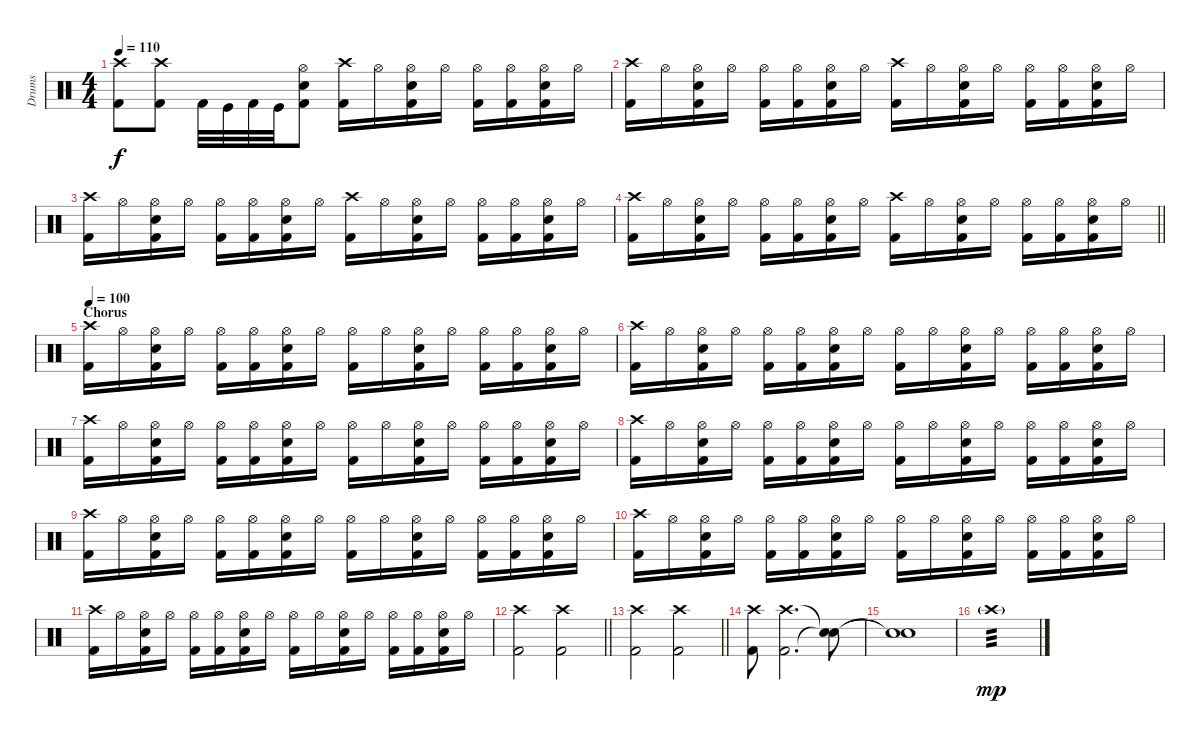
\track ("Drums" "Drums") {instrument percussion}
\staff {score}
\articulation defaults
\ts (4 4)
\tempo 110
\clef neutral
\ks c
("Kick (hit) 2" "Crash high (hit)").8{dy f} ("Kick (hit) 2" "Crash high (hit)").8 "Kick (hit) 2".32 "Kick (hit)".32 "Kick (hit) 2".32 "Kick (hit)".32 ("Kick (hit) 2" "Snare (hit) 2" "Hi-Hat (open)").8 ("Kick (hit) 2" "Crash high (hit)").16 "Hi-Hat (open)".16 ("Kick (hit) 2" "Snare (hit) 2" "Hi-Hat (open)").16 "Hi-Hat (open)".16 ("Kick (hit) 2" "Hi-Hat (open)").16 ("Kick (hit) 2" "Hi-Hat (open)").16 ("Kick (hit) 2" "Snare (hit) 2" "Hi-Hat (open)").16 "Hi-Hat (open)".16 |
("Kick (hit) 2" "Crash high (hit)").16 "Hi-Hat (open)".16 ("Kick (hit) 2" "Snare (hit) 2" "Hi-Hat (open)").16 "Hi-Hat (open)".16 ("Kick (hit) 2" "Hi-Hat (open)").16 ("Kick (hit) 2" "Hi-Hat (open)").16 ("Kick (hit) 2" "Snare (hit) 2" "Hi-Hat (open)").16 "Hi-Hat (open)".16 ("Kick (hit) 2" "Crash high (hit)").16 "Hi-Hat (open)".16 ("Kick (hit) 2" "Snare (hit) 2" "Hi-Hat (open)").16 "Hi-Hat (open)".16 ("Kick (hit) 2" "Hi-Hat (open)").16 ("Kick (hit) 2" "Hi-Hat (open)").16 ("Kick (hit) 2" "Snare (hit) 2" "Hi-Hat (open)").16 "Hi-Hat (open)".16 |
("Kick (hit) 2" "Crash high (hit)").16 "Hi-Hat (open)".16 ("Kick (hit) 2" "Snare (hit) 2" "Hi-Hat (open)").16 "Hi-Hat (open)".16 ("Kick (hit) 2" "Hi-Hat (open)").16 ("Kick (hit) 2" "Hi-Hat (open)").16 ("Kick (hit) 2" "Snare (hit) 2" "Hi-Hat (open)").16 "Hi-Hat (open)".16 ("Kick (hit) 2" "Crash high (hit)").16 "Hi-Hat (open)".16 ("Kick (hit) 2" "Snare (hit) 2" "Hi-Hat (open)").16 "Hi-Hat (open)".16 ("Kick (hit) 2" "Hi-Hat (open)").16 ("Kick (hit) 2" "Hi-Hat (open)").16 ("Kick (hit) 2" "Snare (hit) 2" "Hi-Hat (open)").16 "Hi-Hat (open)".16 |
\barLineRight lightlight
("Kick (hit) 2" "Crash high (hit)").16 "Hi-Hat (open)".16 ("Kick (hit) 2" "Snare (hit) 2" "Hi-Hat (open)").16 "Hi-Hat (open)".16 ("Kick (hit) 2" "Hi-Hat (open)").16 ("Kick (hit) 2" "Hi-Hat (open)").16 ("Kick (hit) 2" "Snare (hit) 2" "Hi-Hat (open)").16 "Hi-Hat (open)".16 ("Kick (hit) 2" "Crash high (hit)").16 "Hi-Hat (open)".16 ("Kick (hit) 2" "Snare (hit) 2" "Hi-Hat (open)").16 "Hi-Hat (open)".16 ("Kick (hit) 2" "Hi-Hat (open)").16 ("Kick (hit) 2" "Hi-Hat (open)").16 ("Kick (hit) 2" "Snare (hit) 2" "Hi-Hat (open)").16 "Hi-Hat (open)".16 |
\section ("" "Chorus")
\tempo 100
("Kick (hit) 2" "Crash high (hit)").16 "Hi-Hat (open)".16 ("Kick (hit) 2" "Snare (hit) 2" "Hi-Hat (open)").16 "Hi-Hat (open)".16 ("Kick (hit) 2" "Hi-Hat (open)").16 ("Kick (hit) 2" "Hi-Hat (open)").16 ("Kick (hit) 2" "Snare (hit) 2" "Hi-Hat (open)").16 "Hi-Hat (open)".16 ("Kick (hit) 2" "Hi-Hat (open)").16 "Hi-Hat (open)".16 ("Kick (hit) 2" "Snare (hit) 2" "Hi-Hat (open)").16 "Hi-Hat (open)".16 ("Kick (hit) 2" "Hi-Hat (open)").16 ("Kick (hit) 2" "Hi-Hat (open)").16 ("Kick (hit) 2" "Snare (hit) 2" "Hi-Hat (open)").16 "Hi-Hat (open)".16 |
("Kick (hit) 2" "Crash high (hit)").16 "Hi-Hat (open)".16 ("Kick (hit) 2" "Snare (hit) 2" "Hi-Hat (open)").16 "Hi-Hat (open)".16 ("Kick (hit) 2" "Hi-Hat (open)").16 ("Kick (hit) 2" "Hi-Hat (open)").16 ("Kick (hit) 2" "Snare (hit) 2" "Hi-Hat (open)").16 "Hi-Hat (open)".16 ("Kick (hit) 2" "Hi-Hat (open)").16 "Hi-Hat (open)".16 ("Kick (hit) 2" "Snare (hit) 2" "Hi-Hat (open)").16 "Hi-Hat (open)".16 ("Kick (hit) 2" "Hi-Hat (open)").16 ("Kick (hit) 2" "Hi-Hat (open)").16 ("Kick (hit) 2" "Snare (hit) 2" "Hi-Hat (open)").16 "Hi-Hat (open)".16 |
("Kick (hit) 2" "Crash high (hit)").16 "Hi-Hat (open)".16 ("Kick (hit) 2" "Snare (hit) 2" "Hi-Hat (open)").16 "Hi-Hat (open)".16 ("Kick (hit) 2" "Hi-Hat (open)").16 ("Kick (hit) 2" "Hi-Hat (open)").16 ("Kick (hit) 2" "Snare (hit) 2" "Hi-Hat (open)").16 "Hi-Hat (open)".16 ("Kick (hit) 2" "Hi-Hat (open)").16 "Hi-Hat (open)".16 ("Kick (hit) 2" "Snare (hit) 2" "Hi-Hat (open)").16 "Hi-Hat (open)".16 ("Kick (hit) 2" "Hi-Hat (open)").16 ("Kick (hit) 2" "Hi-Hat (open)").16 ("Kick (hit) 2" "Snare (hit) 2" "Hi-Hat (open)").16 "Hi-Hat (open)".16 |
("Kick (hit) 2" "Crash high (hit)").16 "Hi-Hat (open)".16 ("Kick (hit) 2" "Snare (hit) 2" "Hi-Hat (open)").16 "Hi-Hat (open)".16 ("Kick (hit) 2" "Hi-Hat (open)").16 ("Kick (hit) 2" "Hi-Hat (open)").16 ("Kick (hit) 2" "Snare (hit) 2" "Hi-Hat (open)").16 "Hi-Hat (open)".16 ("Kick (hit) 2" "Hi-Hat (open)").16 "Hi-Hat (open)".16 ("Kick (hit) 2" "Snare (hit) 2" "Hi-Hat (open)").16 "Hi-Hat (open)".16 ("Kick (hit) 2" "Hi-Hat (open)").16 ("Kick (hit) 2" "Hi-Hat (open)").16 ("Kick (hit) 2" "Snare (hit) 2" "Hi-Hat (open)").16 "Hi-Hat (open)".16 |
("Kick (hit) 2" "Crash high (hit)").16 "Hi-Hat (open)".16 ("Kick (hit) 2" "Snare (hit) 2" "Hi-Hat (open)").16 "Hi-Hat (open)".16 ("Kick (hit) 2" "Hi-Hat (open)").16 ("Kick (hit) 2" "Hi-Hat (open)").16 ("Kick (hit) 2" "Snare (hit) 2" "Hi-Hat (open)").16 "Hi-Hat (open)".16 ("Kick (hit) 2" "Hi-Hat (open)").16 "Hi-Hat (open)".16 ("Kick (hit) 2" "Snare (hit) 2" "Hi-Hat (open)").16 "Hi-Hat (open)".16 ("Kick (hit) 2" "Hi-Hat (open)").16 ("Kick (hit) 2" "Hi-Hat (open)").16 ("Kick (hit) 2" "Snare (hit) 2" "Hi-Hat (open)").16 "Hi-Hat (open)".16 |
("Kick (hit) 2" "Crash high (hit)").16 "Hi-Hat (open)".16 ("Kick (hit) 2" "Snare (hit) 2" "Hi-Hat (open)").16 "Hi-Hat (open)".16 ("Kick (hit) 2" "Hi-Hat (open)").16 ("Kick (hit) 2" "Hi-Hat (open)").16 ("Kick (hit) 2" "Snare (hit) 2" "Hi-Hat (open)").16 "Hi-Hat (open)".16 ("Kick (hit) 2" "Hi-Hat (open)").16 "Hi-Hat (open)".16 ("Kick (hit) 2" "Snare (hit) 2" "Hi-Hat (open)").16 "Hi-Hat (open)".16 ("Kick (hit) 2" "Hi-Hat (open)").16 ("Kick (hit) 2" "Hi-Hat (open)").16 ("Kick (hit) 2" "Snare (hit) 2" "Hi-Hat (open)").16 "Hi-Hat (open)".16 |
("Kick (hit) 2" "Crash high (hit)").16 "Hi-Hat (open)".16 ("Kick (hit) 2" "Snare (hit) 2" "Hi-Hat (open)").16 "Hi-Hat (open)".16 ("Kick (hit) 2" "Hi-Hat (open)").16 ("Kick (hit) 2" "Hi-Hat (open)").16 ("Kick (hit) 2" "Snare (hit) 2" "Hi-Hat (open)").16 "Hi-Hat (open)".16 ("Kick (hit) 2" "Hi-Hat (open)").16 "Hi-Hat (open)".16 ("Kick (hit) 2" "Snare (hit) 2" "Hi-Hat (open)").16 "Hi-Hat (open)".16 ("Kick (hit) 2" "Hi-Hat (open)").16 ("Kick (hit) 2" "Hi-Hat (open)").16 ("Kick (hit) 2" "Snare (hit) 2" "Hi-Hat (open)").16 "Hi-Hat (open)".16 |
\barLineRight lightlight
("Kick (hit) 2" "Crash high (hit)").2 ("Kick (hit) 2" "Crash high (hit)").2 |
\barLineRight lightlight
("Kick (hit) 2" "Crash high (hit)").2 ("Kick (hit) 2" "Crash high (hit)").2 |
("Kick (hit) 2" "Crash high (hit)").8 ("Kick (hit) 2" "Crash high (hit)").2{d} ("Snare (hit)"{t} "Snare (hit)"{t}).8 |
("Snare (hit)"{t} "Snare (hit)"{t}).1 |
"Crash high (hit)"{g}.1{tp 3 dy mp}
